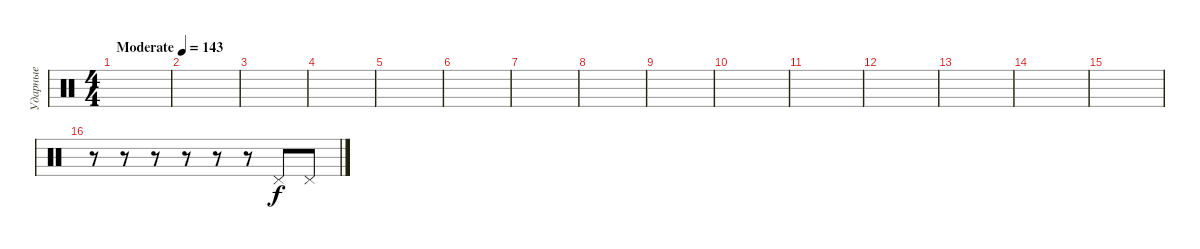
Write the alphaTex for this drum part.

\track ("Ударные" "Ударные") {instrument percussion}
\staff {score}
\articulation defaults
\ts (4 4)
\tempo (143 "Moderate")
\clef neutral
\ks c
|
|
|
|
|
|
|
|
|
|
|
|
|
|
|
r.8 r.8 r.8 r.8 r.8 r.8 "Pedal Hi-Hat (hit)".8 "Pedal Hi-Hat (hit)".8
